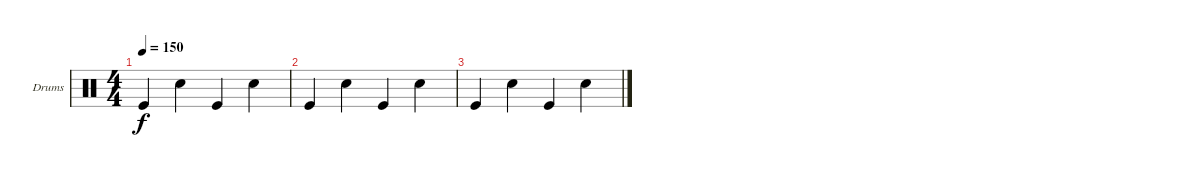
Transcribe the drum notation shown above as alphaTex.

\bracketExtendMode groupsimilarinstruments
\firstSystemTrackNameOrientation horizontal
\otherSystemsTrackNameOrientation horizontal
\track ("Drumkit" "Drums") {instrument percussion}
\staff {score}
\articulation defaults
\ts (4 4)
\tempo 150
\clef neutral
\ks c "Kick (hit)".4{dy f} "Snare (hit) 2".4 "Kick (hit)".4 "Snare (hit) 2".4
|
"Kick (hit)".4 "Snare (hit) 2".4 "Kick (hit)".4 "Snare (hit) 2".4 |
"Kick (hit)".4 "Snare (hit) 2".4 "Kick (hit)".4 "Snare (hit) 2".4
